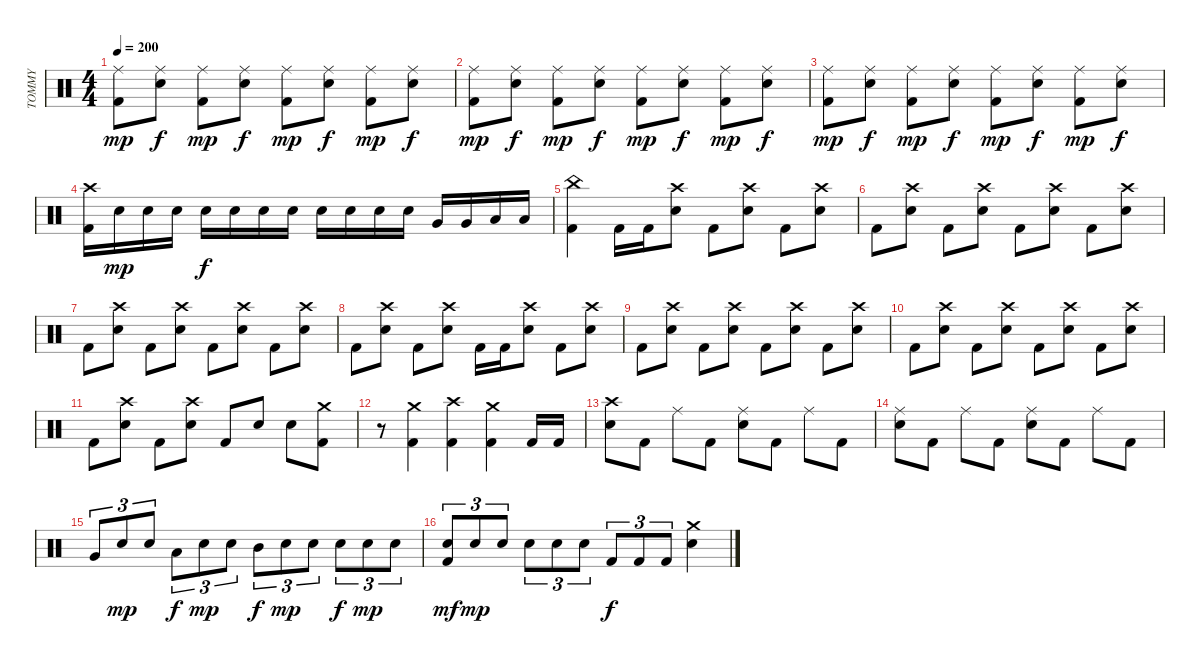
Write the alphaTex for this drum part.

\track ("TOMMY" "TOMMY") {instrument percussion}
\staff {score}
\articulation defaults
\ts (4 4)
\tempo 200
\clef neutral
\ks c
("Kick (hit) 2" "Ride (middle)").8{dy mp} ("Snare (hit) 2" "Ride (middle)").8{dy f} ("Kick (hit) 2" "Ride (middle)").8{dy mp} ("Snare (hit) 2" "Ride (middle)").8{dy f} ("Kick (hit) 2" "Ride (middle)").8{dy mp} ("Snare (hit) 2" "Ride (middle)").8{dy f} ("Kick (hit) 2" "Ride (middle)").8{dy mp} ("Snare (hit) 2" "Ride (middle)").8{dy f} |
("Kick (hit) 2" "Ride (middle)").8{dy mp} ("Snare (hit) 2" "Ride (middle)").8{dy f} ("Kick (hit) 2" "Ride (middle)").8{dy mp} ("Snare (hit) 2" "Ride (middle)").8{dy f} ("Kick (hit) 2" "Ride (middle)").8{dy mp} ("Snare (hit) 2" "Ride (middle)").8{dy f} ("Kick (hit) 2" "Ride (middle)").8{dy mp} ("Snare (hit) 2" "Ride (middle)").8{dy f} |
("Kick (hit) 2" "Ride (middle)").8{dy mp} ("Snare (hit) 2" "Ride (middle)").8{dy f} ("Kick (hit) 2" "Ride (middle)").8{dy mp} ("Snare (hit) 2" "Ride (middle)").8{dy f} ("Kick (hit) 2" "Ride (middle)").8{dy mp} ("Snare (hit) 2" "Ride (middle)").8{dy f} ("Kick (hit) 2" "Ride (middle)").8{dy mp} ("Snare (hit) 2" "Ride (middle)").8{dy f} |
("Kick (hit) 2" "Crash high (hit)").16 "Snare (hit) 2".16{dy mp} "Snare (hit) 2".16 "Snare (hit) 2".16 "Snare (hit) 2".16{dy f} "Snare (hit) 2".16 "Snare (hit) 2".16 "Snare (hit) 2".16 "Snare (hit) 2".16 "Snare (hit) 2".16 "Snare (hit) 2".16 "Snare (hit) 2".16 "Very Low Tom (hit)".16 "Very Low Tom (hit)".16 "Low Floor Tom (hit)".16 "Low Floor Tom (hit)".16 |
("Kick (hit) 2" "China (hit)").4 "Kick (hit) 2".16 "Kick (hit) 2".16 ("Snare (hit) 2" "Crash high (hit)").8 "Kick (hit) 2".8 ("Snare (hit) 2" "Crash high (hit)").8 "Kick (hit) 2".8 ("Snare (hit) 2" "Crash high (hit)").8 |
"Kick (hit) 2".8 ("Snare (hit) 2" "Crash high (hit)").8 "Kick (hit) 2".8 ("Snare (hit) 2" "Crash high (hit)").8 "Kick (hit) 2".8 ("Snare (hit) 2" "Crash high (hit)").8 "Kick (hit) 2".8 ("Snare (hit) 2" "Crash high (hit)").8 |
"Kick (hit) 2".8 ("Snare (hit) 2" "Crash high (hit)").8 "Kick (hit) 2".8 ("Snare (hit) 2" "Crash high (hit)").8 "Kick (hit) 2".8 ("Snare (hit) 2" "Crash high (hit)").8 "Kick (hit) 2".8 ("Snare (hit) 2" "Crash high (hit)").8 |
"Kick (hit) 2".8 ("Snare (hit) 2" "Crash high (hit)").8 "Kick (hit) 2".8 ("Snare (hit) 2" "Crash high (hit)").8 "Kick (hit) 2".16 "Kick (hit) 2".16 ("Snare (hit) 2" "Crash high (hit)").8 "Kick (hit) 2".8 ("Snare (hit) 2" "Crash high (hit)").8 |
"Kick (hit) 2".8 ("Snare (hit) 2" "Crash high (hit)").8 "Kick (hit) 2".8 ("Snare (hit) 2" "Crash high (hit)").8 "Kick (hit) 2".8 ("Snare (hit) 2" "Crash high (hit)").8 "Kick (hit) 2".8 ("Snare (hit) 2" "Crash high (hit)").8 |
"Kick (hit) 2".8 ("Snare (hit) 2" "Crash high (hit)").8 "Kick (hit) 2".8 ("Snare (hit) 2" "Crash high (hit)").8 "Kick (hit) 2".8 ("Snare (hit) 2" "Crash high (hit)").8 "Kick (hit) 2".8 ("Snare (hit) 2" "Crash high (hit)").8 |
"Kick (hit) 2".8 ("Snare (hit) 2" "Crash high (hit)").8 "Kick (hit) 2".8 ("Snare (hit) 2" "Crash high (hit)").8 "Kick (hit) 2".8 "Snare (hit) 2".8 "Snare (hit) 2".8 ("Kick (hit) 2" "Crash medium (hit)").8 |
r.8 ("Kick (hit) 2" "Crash medium (hit)").4 ("Kick (hit) 2" "Crash high (hit)").4 ("Kick (hit) 2" "Crash medium (hit)").4 "Kick (hit) 2".16 "Kick (hit) 2".16 |
("Snare (hit) 2" "Crash high (hit)").8 "Kick (hit) 2".8 "Ride (middle)".8 "Kick (hit) 2".8 ("Snare (hit) 2" "Ride (middle)").8 "Kick (hit) 2".8 "Ride (middle)".8 "Kick (hit) 2".8 |
("Snare (hit) 2" "Ride (middle)").8 "Kick (hit) 2".8 "Ride (middle)".8 "Kick (hit) 2".8 ("Snare (hit) 2" "Ride (middle)").8 "Kick (hit) 2".8 "Ride (middle)".8 "Kick (hit) 2".8 |
"Very Low Tom (hit)".8{tu (3 2)} "Snare (hit) 2".8{tu (3 2) dy mp} "Snare (hit) 2".8{tu (3 2)} "Low Floor Tom (hit)".8{tu (3 2) dy f} "Snare (hit) 2".8{tu (3 2) dy mp} "Snare (hit) 2".8{tu (3 2)} "Mid Tom (hit)".8{tu (3 2) dy f} "Snare (hit) 2".8{tu (3 2) dy mp} "Snare (hit) 2".8{tu (3 2)} "Snare (hit) 2".8{tu (3 2) dy f} "Snare (hit) 2".8{tu (3 2) dy mp} "Snare (hit) 2".8{tu (3 2)} |
("Snare (hit) 2" "Kick (hit) 2").8{tu (3 2) dy mf} "Snare (hit) 2".8{tu (3 2) dy mp} "Snare (hit) 2".8{tu (3 2)} "Snare (hit) 2".8{tu (3 2)} "Snare (hit) 2".8{tu (3 2)} "Snare (hit) 2".8{tu (3 2)} "Kick (hit) 2".8{tu (3 2) dy f} "Kick (hit) 2".8{tu (3 2)} "Kick (hit) 2".8{tu (3 2)} ("Snare (hit) 2" "Crash medium (hit)").4
